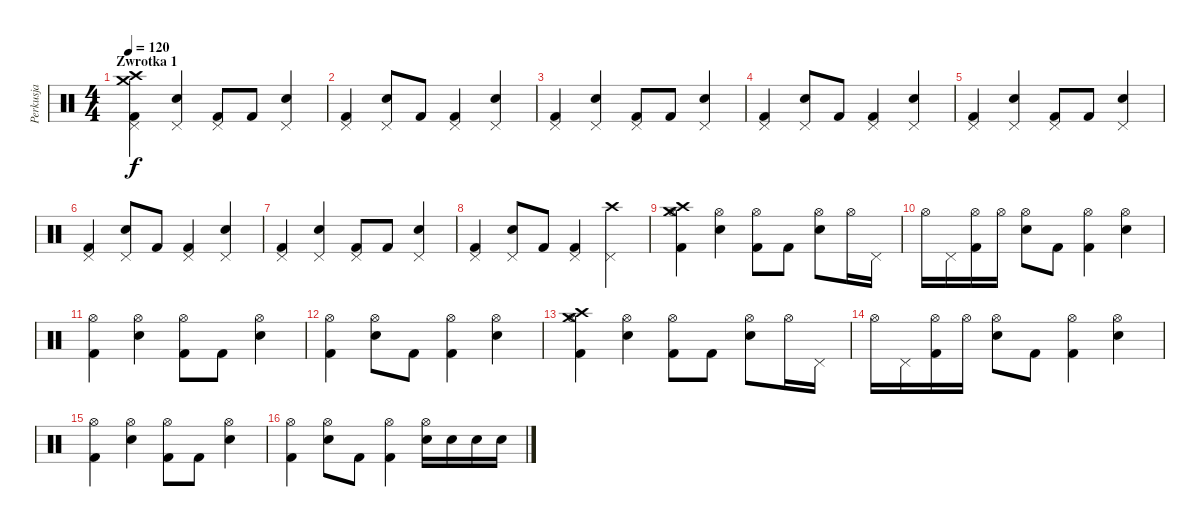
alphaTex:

\track ("Perkusja" "Perkusja") {instrument percussion}
\staff {score}
\articulation defaults
\ts (4 4)
\section ("" "Zwrotka 1")
\tempo 120
\clef neutral
\ks c
("Crash high (hit)" "Crash medium (hit)" "Kick (hit) 2" "Pedal Hi-Hat (hit)").4{dy f} ("Snare (hit) 2" "Pedal Hi-Hat (hit)").4 ("Kick (hit) 2" "Pedal Hi-Hat (hit)").8 "Kick (hit) 2".8 ("Snare (hit) 2" "Pedal Hi-Hat (hit)").4 |
("Kick (hit) 2" "Pedal Hi-Hat (hit)").4 ("Snare (hit) 2" "Pedal Hi-Hat (hit)").8 "Kick (hit) 2".8 ("Kick (hit) 2" "Pedal Hi-Hat (hit)").4 ("Snare (hit) 2" "Pedal Hi-Hat (hit)").4 |
("Kick (hit) 2" "Pedal Hi-Hat (hit)").4 ("Snare (hit) 2" "Pedal Hi-Hat (hit)").4 ("Kick (hit) 2" "Pedal Hi-Hat (hit)").8 "Kick (hit) 2".8 ("Snare (hit) 2" "Pedal Hi-Hat (hit)").4 |
("Kick (hit) 2" "Pedal Hi-Hat (hit)").4 ("Snare (hit) 2" "Pedal Hi-Hat (hit)").8 "Kick (hit) 2".8 ("Kick (hit) 2" "Pedal Hi-Hat (hit)").4 ("Snare (hit) 2" "Pedal Hi-Hat (hit)").4 |
("Kick (hit) 2" "Pedal Hi-Hat (hit)").4 ("Snare (hit) 2" "Pedal Hi-Hat (hit)").4 ("Kick (hit) 2" "Pedal Hi-Hat (hit)").8 "Kick (hit) 2".8 ("Snare (hit) 2" "Pedal Hi-Hat (hit)").4 |
("Kick (hit) 2" "Pedal Hi-Hat (hit)").4 ("Snare (hit) 2" "Pedal Hi-Hat (hit)").8 "Kick (hit) 2".8 ("Kick (hit) 2" "Pedal Hi-Hat (hit)").4 ("Snare (hit) 2" "Pedal Hi-Hat (hit)").4 |
("Kick (hit) 2" "Pedal Hi-Hat (hit)").4 ("Snare (hit) 2" "Pedal Hi-Hat (hit)").4 ("Kick (hit) 2" "Pedal Hi-Hat (hit)").8 "Kick (hit) 2".8 ("Snare (hit) 2" "Pedal Hi-Hat (hit)").4 |
("Kick (hit) 2" "Pedal Hi-Hat (hit)").4 ("Snare (hit) 2" "Pedal Hi-Hat (hit)").8 "Kick (hit) 2".8 ("Kick (hit) 2" "Pedal Hi-Hat (hit)").4 ("Crash high (hit)" "Pedal Hi-Hat (hit)").4 |
("Crash high (hit)" "Crash medium (hit)" "Kick (hit) 2" "Hi-Hat (open)").4 ("Snare (hit) 2" "Hi-Hat (open)").4 ("Kick (hit) 2" "Hi-Hat (open)").8 "Kick (hit) 2".8 ("Snare (hit) 2" "Hi-Hat (open)").8 "Hi-Hat (open)".16 "Pedal Hi-Hat (hit)".16 |
"Hi-Hat (open)".16 "Pedal Hi-Hat (hit)".16 ("Kick (hit) 2" "Hi-Hat (open)").16 "Hi-Hat (open)".16 ("Snare (hit) 2" "Hi-Hat (open)").8 "Kick (hit) 2".8 ("Kick (hit) 2" "Hi-Hat (open)").4 ("Snare (hit) 2" "Hi-Hat (open)").4 |
("Kick (hit) 2" "Hi-Hat (open)").4 ("Snare (hit) 2" "Hi-Hat (open)").4 ("Kick (hit) 2" "Hi-Hat (open)").8 "Kick (hit) 2".8 ("Snare (hit) 2" "Hi-Hat (open)").4 |
("Kick (hit) 2" "Hi-Hat (open)").4 ("Snare (hit) 2" "Hi-Hat (open)").8 "Kick (hit) 2".8 ("Kick (hit) 2" "Hi-Hat (open)").4 ("Snare (hit) 2" "Hi-Hat (open)").4 |
("Crash high (hit)" "Crash medium (hit)" "Kick (hit) 2" "Hi-Hat (open)").4 ("Snare (hit) 2" "Hi-Hat (open)").4 ("Kick (hit) 2" "Hi-Hat (open)").8 "Kick (hit) 2".8 ("Snare (hit) 2" "Hi-Hat (open)").8 "Hi-Hat (open)".16 "Pedal Hi-Hat (hit)".16 |
"Hi-Hat (open)".16 "Pedal Hi-Hat (hit)".16 ("Kick (hit) 2" "Hi-Hat (open)").16 "Hi-Hat (open)".16 ("Snare (hit) 2" "Hi-Hat (open)").8 "Kick (hit) 2".8 ("Kick (hit) 2" "Hi-Hat (open)").4 ("Snare (hit) 2" "Hi-Hat (open)").4 |
("Kick (hit) 2" "Hi-Hat (open)").4 ("Snare (hit) 2" "Hi-Hat (open)").4 ("Kick (hit) 2" "Hi-Hat (open)").8 "Kick (hit) 2".8 ("Snare (hit) 2" "Hi-Hat (open)").4 |
("Kick (hit) 2" "Hi-Hat (open)").4 ("Snare (hit) 2" "Hi-Hat (open)").8 "Kick (hit) 2".8 ("Kick (hit) 2" "Hi-Hat (open)").4 ("Snare (hit) 2" "Hi-Hat (open)").16 "Electric Snare (hit)".16 "Electric Snare (hit)".16 "Electric Snare (hit)".16
